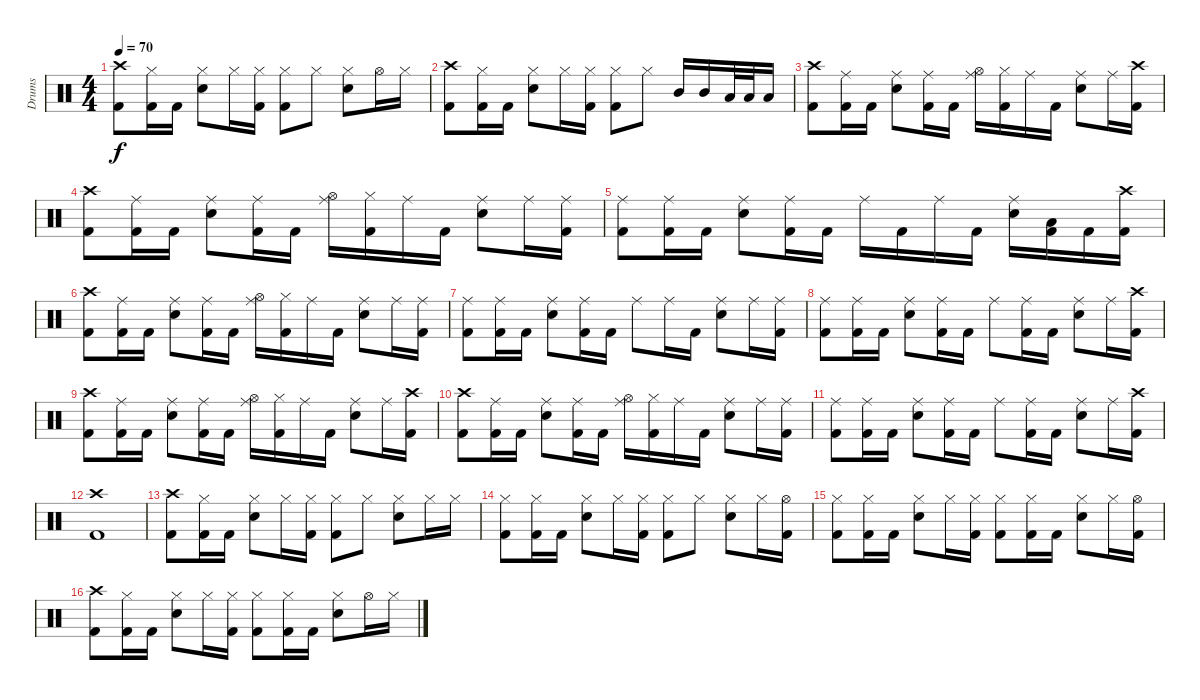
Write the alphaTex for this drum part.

\track ("Drums" "Drums") {instrument percussion}
\staff {score}
\articulation defaults
\ts (4 4)
\tempo 70
\clef neutral
\ks c
("Crash high (hit)" "Kick (hit) 2").8{dy f} ("Hi-Hat (closed)" "Kick (hit) 2").16 "Kick (hit) 2".16 ("Hi-Hat (closed)" "Electric Snare (hit)").8 "Hi-Hat (closed)".16 ("Hi-Hat (closed)" "Kick (hit) 2").16 ("Hi-Hat (closed)" "Kick (hit) 2").8 "Hi-Hat (closed)".8 ("Hi-Hat (closed)" "Electric Snare (hit)").8 "Hi-Hat (open)".16 "Hi-Hat (closed)".16 |
("Crash high (hit)" "Kick (hit) 2").8 ("Hi-Hat (closed)" "Kick (hit) 2").16 "Kick (hit) 2".16 ("Hi-Hat (closed)" "Electric Snare (hit)").8 "Hi-Hat (closed)".16 ("Hi-Hat (closed)" "Kick (hit) 2").16 ("Hi-Hat (closed)" "Kick (hit) 2").8 "Hi-Hat (closed)".8 "Mid Tom (hit)".16 "Mid Tom (hit)".16 "Low Floor Tom (hit)".32 "Low Floor Tom (hit)".32 "Low Tom (hit)".16 |
("Crash high (hit)" "Kick (hit) 2").8 ("Ride (middle)" "Kick (hit) 2").16 "Kick (hit) 2".16 ("Ride (middle)" "Electric Snare (hit)").8 ("Ride (middle)" "Kick (hit) 2").16 "Kick (hit) 2".16 ("Ride (middle)" "Hi-Hat (open)").16 ("Hi-Hat (closed)" "Kick (hit) 2").16 "Ride (middle)".16 "Kick (hit) 2".16 ("Ride (middle)" "Electric Snare (hit)").8 "Ride (middle)".16 ("Crash high (hit)" "Kick (hit) 2").16 |
("Crash high (hit)" "Kick (hit) 2").8 ("Ride (middle)" "Kick (hit) 2").16 "Kick (hit) 2".16 ("Ride (middle)" "Electric Snare (hit)").8 ("Ride (middle)" "Kick (hit) 2").16 "Kick (hit) 2".16 ("Ride (middle)" "Hi-Hat (open)").16 ("Hi-Hat (closed)" "Kick (hit) 2").16 "Ride (middle)".16 "Kick (hit) 2".16 ("Ride (middle)" "Electric Snare (hit)").8 "Ride (middle)".16 ("Ride (middle)" "Kick (hit) 2").16 |
("Ride (middle)" "Kick (hit) 2").8 ("Ride (middle)" "Kick (hit) 2").16 "Kick (hit) 2".16 ("Ride (middle)" "Electric Snare (hit)").8 ("Ride (middle)" "Kick (hit) 2").16 "Kick (hit) 2".16 "Ride (middle)".16 "Kick (hit) 2".16 "Ride (middle)".16 "Kick (hit) 2".16 ("Ride (middle)" "Electric Snare (hit)").16 ("Low Tom (hit)" "Kick (hit) 2").16 "Kick (hit) 2".16 ("Crash high (hit)" "Kick (hit) 2").16 |
("Crash high (hit)" "Kick (hit) 2").8 ("Ride (middle)" "Kick (hit) 2").16 "Kick (hit) 2".16 ("Ride (middle)" "Electric Snare (hit)").8 ("Ride (middle)" "Kick (hit) 2").16 "Kick (hit) 2".16 ("Ride (middle)" "Hi-Hat (open)").16 ("Hi-Hat (closed)" "Kick (hit) 2").16 "Ride (middle)".16 "Kick (hit) 2".16 ("Ride (middle)" "Electric Snare (hit)").8 "Ride (middle)".16 ("Ride (middle)" "Kick (hit) 2").16 |
("Ride (middle)" "Kick (hit) 2").8 ("Ride (middle)" "Kick (hit) 2").16 "Kick (hit) 2".16 ("Ride (middle)" "Electric Snare (hit)").8 ("Ride (middle)" "Kick (hit) 2").16 "Kick (hit) 2".16 "Ride (middle)".8 "Ride (middle)".16 "Kick (hit) 2".16 ("Ride (middle)" "Electric Snare (hit)").8 "Ride (middle)".16 ("Ride (middle)" "Kick (hit) 2").16 |
("Ride (middle)" "Kick (hit) 2").8 ("Ride (middle)" "Kick (hit) 2").16 "Kick (hit) 2".16 ("Ride (middle)" "Electric Snare (hit)").8 ("Ride (middle)" "Kick (hit) 2").16 "Kick (hit) 2".16 "Ride (middle)".8 ("Ride (middle)" "Kick (hit) 2").16 "Kick (hit) 2".16 ("Ride (middle)" "Electric Snare (hit)").8 "Ride (middle)".16 ("Crash high (hit)" "Kick (hit) 2").16 |
("Crash high (hit)" "Kick (hit) 2").8 ("Ride (middle)" "Kick (hit) 2").16 "Kick (hit) 2".16 ("Ride (middle)" "Electric Snare (hit)").8 ("Ride (middle)" "Kick (hit) 2").16 "Kick (hit) 2".16 ("Ride (middle)" "Hi-Hat (open)").16 ("Hi-Hat (closed)" "Kick (hit) 2").16 "Ride (middle)".16 "Kick (hit) 2".16 ("Ride (middle)" "Electric Snare (hit)").8 "Ride (middle)".16 ("Crash high (hit)" "Kick (hit) 2").16 |
("Crash high (hit)" "Kick (hit) 2").8 ("Ride (middle)" "Kick (hit) 2").16 "Kick (hit) 2".16 ("Ride (middle)" "Electric Snare (hit)").8 ("Ride (middle)" "Kick (hit) 2").16 "Kick (hit) 2".16 ("Ride (middle)" "Hi-Hat (open)").16 ("Hi-Hat (closed)" "Kick (hit) 2").16 "Ride (middle)".16 "Kick (hit) 2".16 ("Ride (middle)" "Electric Snare (hit)").8 "Ride (middle)".16 ("Ride (middle)" "Kick (hit) 2").16 |
("Ride (middle)" "Kick (hit) 2").8 ("Ride (middle)" "Kick (hit) 2").16 "Kick (hit) 2".16 ("Ride (middle)" "Electric Snare (hit)").8 ("Ride (middle)" "Kick (hit) 2").16 "Kick (hit) 2".16 "Ride (middle)".8 ("Ride (middle)" "Kick (hit) 2").16 "Kick (hit) 2".16 ("Ride (middle)" "Electric Snare (hit)").8 "Ride (middle)".16 ("Crash high (hit)" "Kick (hit) 2").16 |
("Crash high (hit)" "Kick (hit) 2").1 |
("Crash high (hit)" "Kick (hit) 2").8 ("Hi-Hat (closed)" "Kick (hit) 2").16 "Kick (hit) 2".16 ("Hi-Hat (closed)" "Electric Snare (hit)").8 "Hi-Hat (closed)".16 ("Hi-Hat (closed)" "Kick (hit) 2").16 ("Hi-Hat (closed)" "Kick (hit) 2").8 "Hi-Hat (closed)".8 ("Hi-Hat (closed)" "Electric Snare (hit)").8 "Hi-Hat (closed)".16 "Hi-Hat (closed)".16 |
("Hi-Hat (closed)" "Kick (hit) 2").8 ("Hi-Hat (closed)" "Kick (hit) 2").16 "Kick (hit) 2".16 ("Hi-Hat (closed)" "Electric Snare (hit)").8 "Hi-Hat (closed)".16 ("Hi-Hat (closed)" "Kick (hit) 2").16 ("Hi-Hat (closed)" "Kick (hit) 2").8 "Hi-Hat (closed)".8 ("Hi-Hat (closed)" "Electric Snare (hit)").8 "Hi-Hat (closed)".16 ("Hi-Hat (open)" "Kick (hit) 2").16 |
("Hi-Hat (closed)" "Kick (hit) 2").8 ("Hi-Hat (closed)" "Kick (hit) 2").16 "Kick (hit) 2".16 ("Hi-Hat (closed)" "Electric Snare (hit)").8 "Hi-Hat (closed)".16 ("Hi-Hat (closed)" "Kick (hit) 2").16 ("Hi-Hat (closed)" "Kick (hit) 2").8 ("Hi-Hat (closed)" "Kick (hit) 2").16 "Kick (hit) 2".16 ("Hi-Hat (closed)" "Electric Snare (hit)").8 "Hi-Hat (closed)".16 ("Hi-Hat (open)" "Kick (hit) 2").16 |
("Crash high (hit)" "Kick (hit) 2").8 ("Hi-Hat (closed)" "Kick (hit) 2").16 "Kick (hit) 2".16 ("Hi-Hat (closed)" "Electric Snare (hit)").8 "Hi-Hat (closed)".16 ("Hi-Hat (closed)" "Kick (hit) 2").16 ("Hi-Hat (closed)" "Kick (hit) 2").8 ("Hi-Hat (closed)" "Kick (hit) 2").16 "Kick (hit) 2".16 ("Hi-Hat (closed)" "Electric Snare (hit)").8 "Hi-Hat (open)".16 "Hi-Hat (closed)".16
